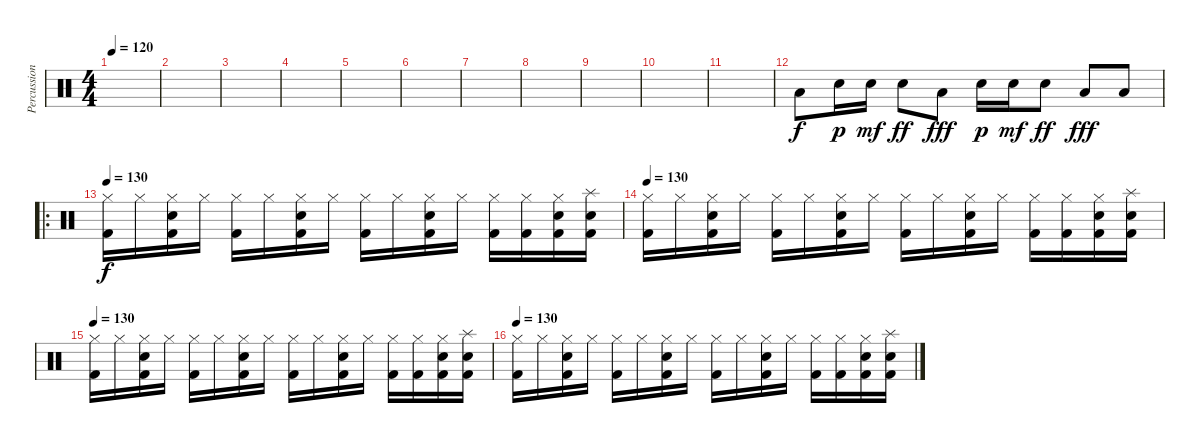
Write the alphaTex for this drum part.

\track ("Percussion" "Percussion") {instrument percussion}
\staff {score}
\articulation defaults
\ts (4 4)
\tempo 120
\clef neutral
\ks c
|
|
|
|
|
|
|
|
|
|
|
"Low Tom (hit)".8 "Electric Snare (hit)".16{dy p} "Electric Snare (hit)".16{dy mf} "Electric Snare (hit)".8{dy ff} "Low Tom (hit)".8{dy fff} "Electric Snare (hit)".16{dy p} "Electric Snare (hit)".16{dy mf} "Electric Snare (hit)".8{dy ff} "Low Tom (hit)".8{dy fff} "Low Tom (hit)".8 |
\ro
\tempo 130
("Hi-Hat (closed)" "Kick (hit) 2").16{dy f} "Hi-Hat (closed)".16 ("Hi-Hat (closed)" "Snare (hit) 2" "Kick (hit) 2").16 "Hi-Hat (closed)".16 ("Hi-Hat (closed)" "Kick (hit) 2").16 "Hi-Hat (closed)".16 ("Hi-Hat (closed)" "Snare (hit) 2" "Kick (hit) 2").16 "Hi-Hat (closed)".16 ("Hi-Hat (closed)" "Kick (hit) 2").16 "Hi-Hat (closed)".16 ("Hi-Hat (closed)" "Snare (hit) 2" "Kick (hit) 2").16 "Hi-Hat (closed)".16 ("Hi-Hat (closed)" "Kick (hit) 2").16 ("Hi-Hat (closed)" "Kick (hit) 2").16 ("Hi-Hat (closed)" "Snare (hit) 2" "Kick (hit) 2").16 ("Splash (hit)" "Snare (hit) 2" "Kick (hit) 2").16 |
\tempo 130
("Hi-Hat (closed)" "Kick (hit) 2").16 "Hi-Hat (closed)".16 ("Hi-Hat (closed)" "Snare (hit) 2" "Kick (hit) 2").16 "Hi-Hat (closed)".16 ("Hi-Hat (closed)" "Kick (hit) 2").16 "Hi-Hat (closed)".16 ("Hi-Hat (closed)" "Snare (hit) 2" "Kick (hit) 2").16 "Hi-Hat (closed)".16 ("Hi-Hat (closed)" "Kick (hit) 2").16 "Hi-Hat (closed)".16 ("Hi-Hat (closed)" "Snare (hit) 2" "Kick (hit) 2").16 "Hi-Hat (closed)".16 ("Hi-Hat (closed)" "Kick (hit) 2").16 ("Hi-Hat (closed)" "Kick (hit) 2").16 ("Hi-Hat (closed)" "Snare (hit) 2" "Kick (hit) 2").16 ("Splash (hit)" "Snare (hit) 2" "Kick (hit) 2").16 |
\tempo 130
("Hi-Hat (closed)" "Kick (hit) 2").16 "Hi-Hat (closed)".16 ("Hi-Hat (closed)" "Snare (hit) 2" "Kick (hit) 2").16 "Hi-Hat (closed)".16 ("Hi-Hat (closed)" "Kick (hit) 2").16 "Hi-Hat (closed)".16 ("Hi-Hat (closed)" "Snare (hit) 2" "Kick (hit) 2").16 "Hi-Hat (closed)".16 ("Hi-Hat (closed)" "Kick (hit) 2").16 "Hi-Hat (closed)".16 ("Hi-Hat (closed)" "Snare (hit) 2" "Kick (hit) 2").16 "Hi-Hat (closed)".16 ("Hi-Hat (closed)" "Kick (hit) 2").16 ("Hi-Hat (closed)" "Kick (hit) 2").16 ("Hi-Hat (closed)" "Snare (hit) 2" "Kick (hit) 2").16 ("Splash (hit)" "Snare (hit) 2" "Kick (hit) 2").16 |
\tempo 130
("Hi-Hat (closed)" "Kick (hit) 2").16 "Hi-Hat (closed)".16 ("Hi-Hat (closed)" "Snare (hit) 2" "Kick (hit) 2").16 "Hi-Hat (closed)".16 ("Hi-Hat (closed)" "Kick (hit) 2").16 "Hi-Hat (closed)".16 ("Hi-Hat (closed)" "Snare (hit) 2" "Kick (hit) 2").16 "Hi-Hat (closed)".16 ("Hi-Hat (closed)" "Kick (hit) 2").16 "Hi-Hat (closed)".16 ("Hi-Hat (closed)" "Snare (hit) 2" "Kick (hit) 2").16 "Hi-Hat (closed)".16 ("Hi-Hat (closed)" "Kick (hit) 2").16 ("Hi-Hat (closed)" "Kick (hit) 2").16 ("Hi-Hat (closed)" "Snare (hit) 2" "Kick (hit) 2").16 ("Splash (hit)" "Snare (hit) 2" "Kick (hit) 2").16
